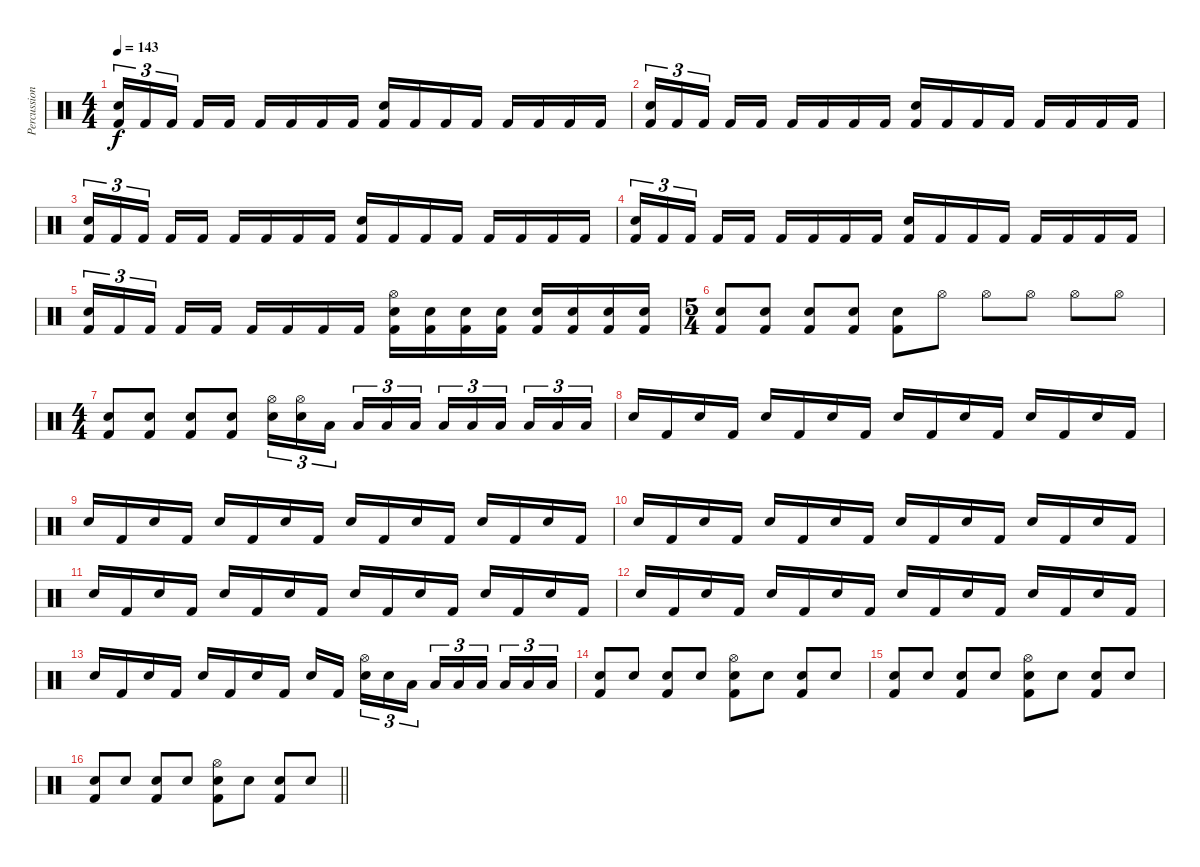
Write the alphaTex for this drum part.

\track ("Percussion" "Percussion") {instrument percussion}
\staff {score}
\articulation defaults
\ts (4 4)
\tempo 143
\clef neutral
\ks c
("Electric Snare (hit)" "Kick (hit) 2").16{tu (3 2) dy f} "Kick (hit) 2".16{tu (3 2)} "Kick (hit) 2".16{tu (3 2) beam splitsecondary} "Kick (hit) 2".16 "Kick (hit) 2".16 "Kick (hit) 2".16 "Kick (hit) 2".16 "Kick (hit) 2".16 "Kick (hit) 2".16 ("Electric Snare (hit)" "Kick (hit) 2").16 "Kick (hit) 2".16 "Kick (hit) 2".16 "Kick (hit) 2".16 "Kick (hit) 2".16 "Kick (hit) 2".16 "Kick (hit) 2".16 "Kick (hit) 2".16 |
("Electric Snare (hit)" "Kick (hit) 2").16{tu (3 2)} "Kick (hit) 2".16{tu (3 2)} "Kick (hit) 2".16{tu (3 2) beam splitsecondary} "Kick (hit) 2".16 "Kick (hit) 2".16 "Kick (hit) 2".16 "Kick (hit) 2".16 "Kick (hit) 2".16 "Kick (hit) 2".16 ("Electric Snare (hit)" "Kick (hit) 2").16 "Kick (hit) 2".16 "Kick (hit) 2".16 "Kick (hit) 2".16 "Kick (hit) 2".16 "Kick (hit) 2".16 "Kick (hit) 2".16 "Kick (hit) 2".16 |
("Electric Snare (hit)" "Kick (hit) 2").16{tu (3 2)} "Kick (hit) 2".16{tu (3 2)} "Kick (hit) 2".16{tu (3 2) beam splitsecondary} "Kick (hit) 2".16 "Kick (hit) 2".16 "Kick (hit) 2".16 "Kick (hit) 2".16 "Kick (hit) 2".16 "Kick (hit) 2".16 ("Electric Snare (hit)" "Kick (hit) 2").16 "Kick (hit) 2".16 "Kick (hit) 2".16 "Kick (hit) 2".16 "Kick (hit) 2".16 "Kick (hit) 2".16 "Kick (hit) 2".16 "Kick (hit) 2".16 |
("Electric Snare (hit)" "Kick (hit) 2").16{tu (3 2)} "Kick (hit) 2".16{tu (3 2)} "Kick (hit) 2".16{tu (3 2) beam splitsecondary} "Kick (hit) 2".16 "Kick (hit) 2".16 "Kick (hit) 2".16 "Kick (hit) 2".16 "Kick (hit) 2".16 "Kick (hit) 2".16 ("Electric Snare (hit)" "Kick (hit) 2").16 "Kick (hit) 2".16 "Kick (hit) 2".16 "Kick (hit) 2".16 "Kick (hit) 2".16 "Kick (hit) 2".16 "Kick (hit) 2".16 "Kick (hit) 2".16 |
("Electric Snare (hit)" "Kick (hit) 2").16{tu (3 2)} "Kick (hit) 2".16{tu (3 2)} "Kick (hit) 2".16{tu (3 2) beam splitsecondary} "Kick (hit) 2".16 "Kick (hit) 2".16 "Kick (hit) 2".16 "Kick (hit) 2".16 "Kick (hit) 2".16 "Kick (hit) 2".16 ("Hi-Hat (open)" "Electric Snare (hit)" "Kick (hit) 2").16 ("Electric Snare (hit)" "Kick (hit) 2").16 ("Electric Snare (hit)" "Kick (hit) 2").16 ("Electric Snare (hit)" "Kick (hit) 2").16 ("Electric Snare (hit)" "Kick (hit) 2").16 ("Electric Snare (hit)" "Kick (hit) 2").16 ("Electric Snare (hit)" "Kick (hit) 2").16 ("Electric Snare (hit)" "Kick (hit) 2").16 |
\ts (5 4)
("Electric Snare (hit)" "Kick (hit) 2").8 ("Electric Snare (hit)" "Kick (hit) 2").8 ("Electric Snare (hit)" "Kick (hit) 2").8 ("Electric Snare (hit)" "Kick (hit) 2").8 ("Electric Snare (hit)" "Kick (hit) 2").8 "Hi-Hat (open)".8 "Hi-Hat (open)".8 "Hi-Hat (open)".8 "Hi-Hat (open)".8 "Hi-Hat (open)".8 |
\ts (4 4)
("Electric Snare (hit)" "Kick (hit) 2").8 ("Electric Snare (hit)" "Kick (hit) 2").8 ("Electric Snare (hit)" "Kick (hit) 2").8 ("Electric Snare (hit)" "Kick (hit) 2").8 ("Hi-Hat (open)" "Electric Snare (hit)").16{tu (3 2)} ("Hi-Hat (open)" "Electric Snare (hit)").16{tu (3 2)} "Low Tom (hit)".16{tu (3 2) beam splitsecondary} "Low Tom (hit)".16{tu (3 2)} "Low Tom (hit)".16{tu (3 2)} "Low Tom (hit)".16{tu (3 2)} "Low Tom (hit)".16{tu (3 2)} "Low Tom (hit)".16{tu (3 2)} "Low Tom (hit)".16{tu (3 2) beam splitsecondary} "Low Tom (hit)".16{tu (3 2)} "Low Tom (hit)".16{tu (3 2)} "Low Tom (hit)".16{tu (3 2)} |
"Electric Snare (hit)".16 "Kick (hit) 2".16 "Electric Snare (hit)".16 "Kick (hit) 2".16 "Electric Snare (hit)".16 "Kick (hit) 2".16 "Electric Snare (hit)".16 "Kick (hit) 2".16 "Electric Snare (hit)".16 "Kick (hit) 2".16 "Electric Snare (hit)".16 "Kick (hit) 2".16 "Electric Snare (hit)".16 "Kick (hit) 2".16 "Electric Snare (hit)".16 "Kick (hit) 2".16 |
"Electric Snare (hit)".16 "Kick (hit) 2".16 "Electric Snare (hit)".16 "Kick (hit) 2".16 "Electric Snare (hit)".16 "Kick (hit) 2".16 "Electric Snare (hit)".16 "Kick (hit) 2".16 "Electric Snare (hit)".16 "Kick (hit) 2".16 "Electric Snare (hit)".16 "Kick (hit) 2".16 "Electric Snare (hit)".16 "Kick (hit) 2".16 "Electric Snare (hit)".16 "Kick (hit) 2".16 |
"Electric Snare (hit)".16 "Kick (hit) 2".16 "Electric Snare (hit)".16 "Kick (hit) 2".16 "Electric Snare (hit)".16 "Kick (hit) 2".16 "Electric Snare (hit)".16 "Kick (hit) 2".16 "Electric Snare (hit)".16 "Kick (hit) 2".16 "Electric Snare (hit)".16 "Kick (hit) 2".16 "Electric Snare (hit)".16 "Kick (hit) 2".16 "Electric Snare (hit)".16 "Kick (hit) 2".16 |
"Electric Snare (hit)".16 "Kick (hit) 2".16 "Electric Snare (hit)".16 "Kick (hit) 2".16 "Electric Snare (hit)".16 "Kick (hit) 2".16 "Electric Snare (hit)".16 "Kick (hit) 2".16 "Electric Snare (hit)".16 "Kick (hit) 2".16 "Electric Snare (hit)".16 "Kick (hit) 2".16 "Electric Snare (hit)".16 "Kick (hit) 2".16 "Electric Snare (hit)".16 "Kick (hit) 2".16 |
"Electric Snare (hit)".16 "Kick (hit) 2".16 "Electric Snare (hit)".16 "Kick (hit) 2".16 "Electric Snare (hit)".16 "Kick (hit) 2".16 "Electric Snare (hit)".16 "Kick (hit) 2".16 "Electric Snare (hit)".16 "Kick (hit) 2".16 "Electric Snare (hit)".16 "Kick (hit) 2".16 "Electric Snare (hit)".16 "Kick (hit) 2".16 "Electric Snare (hit)".16 "Kick (hit) 2".16 |
"Electric Snare (hit)".16 "Kick (hit) 2".16 "Electric Snare (hit)".16 "Kick (hit) 2".16 "Electric Snare (hit)".16 "Kick (hit) 2".16 "Electric Snare (hit)".16 "Kick (hit) 2".16 "Electric Snare (hit)".16 "Kick (hit) 2".16{beam splitsecondary} ("Hi-Hat (open)" "Electric Snare (hit)").16{tu (3 2)} "Electric Snare (hit)".16{tu (3 2)} "Low Tom (hit)".16{tu (3 2)} "Low Tom (hit)".16{tu (3 2)} "Low Tom (hit)".16{tu (3 2)} "Low Tom (hit)".16{tu (3 2) beam splitsecondary} "Low Tom (hit)".16{tu (3 2)} "Low Tom (hit)".16{tu (3 2)} "Low Tom (hit)".16{tu (3 2)} |
("Electric Snare (hit)" "Kick (hit) 2").8 "Electric Snare (hit)".8 ("Electric Snare (hit)" "Kick (hit) 2").8 "Electric Snare (hit)".8 ("Hi-Hat (open)" "Electric Snare (hit)" "Kick (hit) 2").8 "Electric Snare (hit)".8 ("Electric Snare (hit)" "Kick (hit) 2").8 "Electric Snare (hit)".8 |
("Electric Snare (hit)" "Kick (hit) 2").8 "Electric Snare (hit)".8 ("Electric Snare (hit)" "Kick (hit) 2").8 "Electric Snare (hit)".8 ("Hi-Hat (open)" "Electric Snare (hit)" "Kick (hit) 2").8 "Electric Snare (hit)".8 ("Electric Snare (hit)" "Kick (hit) 2").8 "Electric Snare (hit)".8 |
\barLineRight lightlight
("Electric Snare (hit)" "Kick (hit) 2").8 "Electric Snare (hit)".8 ("Electric Snare (hit)" "Kick (hit) 2").8 "Electric Snare (hit)".8 ("Hi-Hat (open)" "Electric Snare (hit)" "Kick (hit) 2").8 "Electric Snare (hit)".8 ("Electric Snare (hit)" "Kick (hit) 2").8 "Electric Snare (hit)".8
